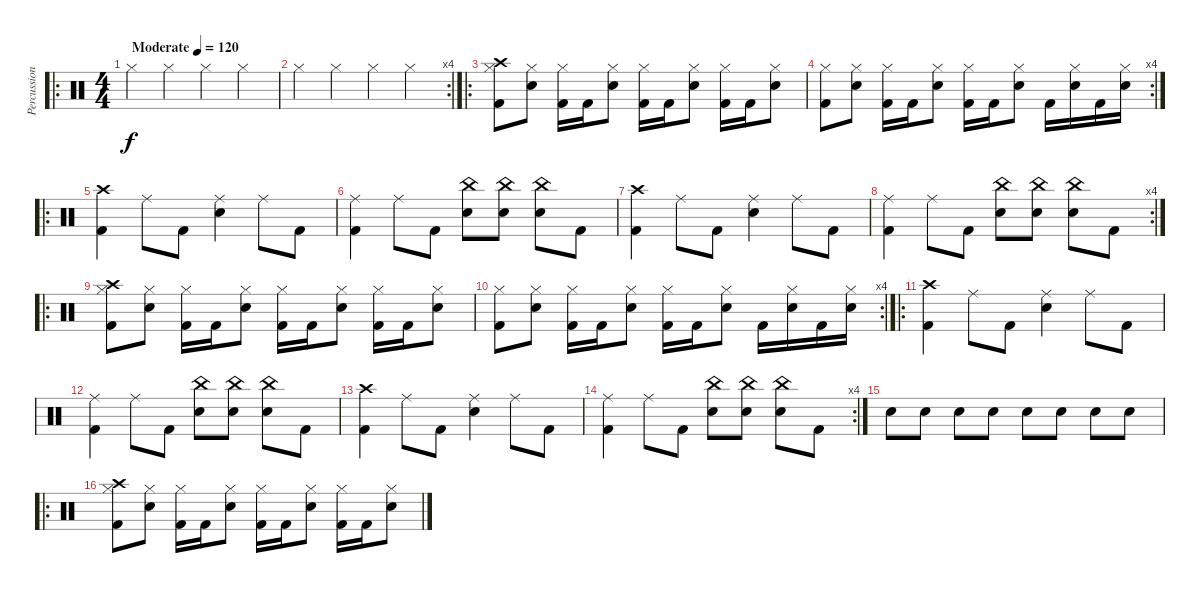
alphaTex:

\track ("Percussion" "Percussion") {instrument percussion}
\staff {score}
\articulation defaults
\ro
\ts (4 4)
\tempo (120 "Moderate")
\clef neutral
\ks c "Hi-Hat (closed)".4{dy f} "Hi-Hat (closed)".4 "Hi-Hat (closed)".4 "Hi-Hat (closed)".4
|
\rc 4 "Hi-Hat (closed)".4 "Hi-Hat (closed)".4 "Hi-Hat (closed)".4 "Hi-Hat (closed)".4
|
\ro
("Crash high (hit)" "Hi-Hat (closed)" "Kick (hit) 2").8 ("Hi-Hat (closed)" "Snare (hit) 2").8 ("Hi-Hat (closed)" "Kick (hit) 2").16 "Kick (hit) 2".16 ("Hi-Hat (closed)" "Snare (hit) 2").8 ("Hi-Hat (closed)" "Kick (hit) 2").16 "Kick (hit) 2".16 ("Hi-Hat (closed)" "Snare (hit) 2").8 ("Hi-Hat (closed)" "Kick (hit) 2").16 "Kick (hit) 2".16 ("Hi-Hat (closed)" "Snare (hit) 2").8 |
\rc 4
("Hi-Hat (closed)" "Kick (hit) 2").8 ("Hi-Hat (closed)" "Snare (hit) 2").8 ("Hi-Hat (closed)" "Kick (hit) 2").16 "Kick (hit) 2".16 ("Hi-Hat (closed)" "Snare (hit) 2").8 ("Hi-Hat (closed)" "Kick (hit) 2").16 "Kick (hit) 2".16 ("Hi-Hat (closed)" "Snare (hit) 2").8 "Kick (hit) 2".16 ("Hi-Hat (closed)" "Snare (hit) 2").16 "Kick (hit) 2".16 ("Hi-Hat (closed)" "Snare (hit) 2").16 |
\ro
("Crash high (hit)" "Kick (hit) 2").4 "Ride (middle)".8 "Kick (hit) 2".8 ("Ride (middle)" "Snare (hit) 2").4 "Ride (middle)".8 "Kick (hit) 2".8 |
("Ride (middle)" "Kick (hit) 2").4 "Ride (middle)".8 "Kick (hit) 2".8 ("China (hit)" "Snare (hit) 2").8 ("China (hit)" "Snare (hit) 2").8 ("China (hit)" "Snare (hit) 2").8 "Kick (hit) 2".8 |
("Crash high (hit)" "Kick (hit) 2").4 "Ride (middle)".8 "Kick (hit) 2".8 ("Ride (middle)" "Snare (hit) 2").4 "Ride (middle)".8 "Kick (hit) 2".8 |
\rc 4
("Ride (middle)" "Kick (hit) 2").4 "Ride (middle)".8 "Kick (hit) 2".8 ("China (hit)" "Snare (hit) 2").8 ("China (hit)" "Snare (hit) 2").8 ("China (hit)" "Snare (hit) 2").8 "Kick (hit) 2".8 |
\ro
("Crash high (hit)" "Hi-Hat (closed)" "Kick (hit) 2").8 ("Hi-Hat (closed)" "Snare (hit) 2").8 ("Hi-Hat (closed)" "Kick (hit) 2").16 "Kick (hit) 2".16 ("Hi-Hat (closed)" "Snare (hit) 2").8 ("Hi-Hat (closed)" "Kick (hit) 2").16 "Kick (hit) 2".16 ("Hi-Hat (closed)" "Snare (hit) 2").8 ("Hi-Hat (closed)" "Kick (hit) 2").16 "Kick (hit) 2".16 ("Hi-Hat (closed)" "Snare (hit) 2").8 |
\rc 4
("Hi-Hat (closed)" "Kick (hit) 2").8 ("Hi-Hat (closed)" "Snare (hit) 2").8 ("Hi-Hat (closed)" "Kick (hit) 2").16 "Kick (hit) 2".16 ("Hi-Hat (closed)" "Snare (hit) 2").8 ("Hi-Hat (closed)" "Kick (hit) 2").16 "Kick (hit) 2".16 ("Hi-Hat (closed)" "Snare (hit) 2").8 "Kick (hit) 2".16 ("Hi-Hat (closed)" "Snare (hit) 2").16 "Kick (hit) 2".16 ("Hi-Hat (closed)" "Snare (hit) 2").16 |
\ro
("Crash high (hit)" "Kick (hit) 2").4 "Ride (middle)".8 "Kick (hit) 2".8 ("Ride (middle)" "Snare (hit) 2").4 "Ride (middle)".8 "Kick (hit) 2".8 |
("Ride (middle)" "Kick (hit) 2").4 "Ride (middle)".8 "Kick (hit) 2".8 ("China (hit)" "Snare (hit) 2").8 ("China (hit)" "Snare (hit) 2").8 ("China (hit)" "Snare (hit) 2").8 "Kick (hit) 2".8 |
("Crash high (hit)" "Kick (hit) 2").4 "Ride (middle)".8 "Kick (hit) 2".8 ("Ride (middle)" "Snare (hit) 2").4 "Ride (middle)".8 "Kick (hit) 2".8 |
\rc 4
("Ride (middle)" "Kick (hit) 2").4 "Ride (middle)".8 "Kick (hit) 2".8 ("China (hit)" "Snare (hit) 2").8 ("China (hit)" "Snare (hit) 2").8 ("China (hit)" "Snare (hit) 2").8 "Kick (hit) 2".8 |
"Snare (hit) 2".8 "Snare (hit) 2".8 "Snare (hit) 2".8 "Snare (hit) 2".8 "Snare (hit) 2".8 "Snare (hit) 2".8 "Snare (hit) 2".8 "Snare (hit) 2".8 |
\ro
("Crash high (hit)" "Hi-Hat (closed)" "Kick (hit) 2").8 ("Hi-Hat (closed)" "Snare (hit) 2").8 ("Hi-Hat (closed)" "Kick (hit) 2").16 "Kick (hit) 2".16 ("Hi-Hat (closed)" "Snare (hit) 2").8 ("Hi-Hat (closed)" "Kick (hit) 2").16 "Kick (hit) 2".16 ("Hi-Hat (closed)" "Snare (hit) 2").8 ("Hi-Hat (closed)" "Kick (hit) 2").16 "Kick (hit) 2".16 ("Hi-Hat (closed)" "Snare (hit) 2").8
